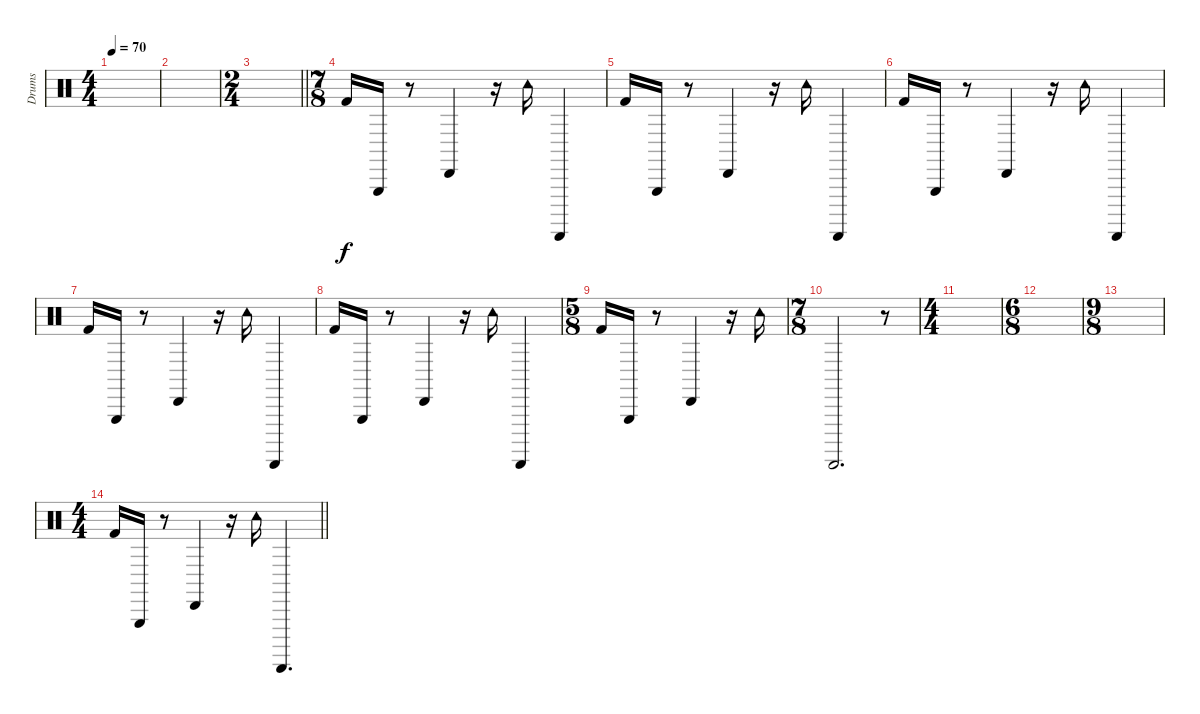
\track ("Drums" "Drums") {instrument percussion}
\staff {score}
\articulation defaults
\ts (4 4)
\tempo 70
\clef neutral
\ks c
|
|
\ts (2 4)
\barLineRight lightlight
|
\ts (7 8)
"Kick (hit) 2".16 "Triangle (hit)".16 r.8 "Cabasa (hit)".4 r.16 "Tambourine (hit)".16 "Guiro (scrap-return)".4 |
"Kick (hit) 2".16 "Triangle (hit)".16 r.8 "Cabasa (hit)".4 r.16 "Tambourine (hit)".16 "Guiro (scrap-return)".4 |
"Kick (hit) 2".16 "Triangle (hit)".16 r.8 "Cabasa (hit)".4 r.16 "Tambourine (hit)".16 "Guiro (scrap-return)".4 |
"Kick (hit) 2".16 "Triangle (hit)".16 r.8 "Cabasa (hit)".4 r.16 "Tambourine (hit)".16 "Guiro (scrap-return)".4 |
"Kick (hit) 2".16 "Triangle (hit)".16 r.8 "Cabasa (hit)".4 r.16 "Tambourine (hit)".16 "Guiro (scrap-return)".4 |
\ts (5 8)
"Kick (hit) 2".16 "Triangle (hit)".16 r.8 "Cabasa (hit)".4 r.16 "Tambourine (hit)".16 |
\ts (7 8)
"Guiro (scrap-return)".2{d} r.8 |
\ts (4 4)
|
\ts (6 8)
|
\ts (9 8)
|
\ts (4 4)
\barLineRight lightlight "Kick (hit) 2".16 "Triangle (hit)".16
r.8 "Cabasa (hit)".4 r.16 "Tambourine (hit)".16 "Guiro (scrap-return)".4{d}
